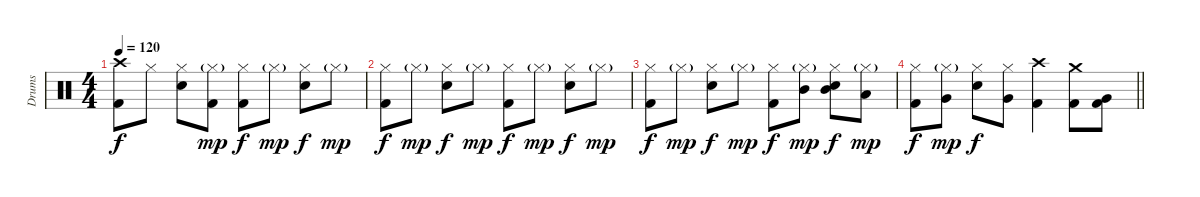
\track ("Drums" "Drums") {instrument percussion}
\staff {score}
\articulation defaults
\ts (4 4)
\tempo 120
\clef neutral
\ks c
("Crash high (hit)" "Kick (hit) 2").8{dy f} "Hi-Hat (closed)".8 ("Hi-Hat (closed)" "Electric Snare (hit)").8 ("Hi-Hat (closed)"{g} "Kick (hit) 2").8{dy mp} ("Hi-Hat (closed)" "Kick (hit) 2").8{dy f} "Hi-Hat (closed)"{g}.8{dy mp} ("Hi-Hat (closed)" "Electric Snare (hit)").8{dy f} "Hi-Hat (closed)"{g}.8{dy mp} |
("Hi-Hat (closed)" "Kick (hit) 2").8{dy f} "Hi-Hat (closed)"{g}.8{dy mp} ("Hi-Hat (closed)" "Electric Snare (hit)").8{dy f} "Hi-Hat (closed)"{g}.8{dy mp} ("Hi-Hat (closed)" "Kick (hit) 2").8{dy f} "Hi-Hat (closed)"{g}.8{dy mp} ("Hi-Hat (closed)" "Electric Snare (hit)").8{dy f} "Hi-Hat (closed)"{g}.8{dy mp} |
("Hi-Hat (closed)" "Kick (hit) 2").8{dy f} "Hi-Hat (closed)"{g}.8{dy mp} ("Hi-Hat (closed)" "Electric Snare (hit)").8{dy f} "Hi-Hat (closed)"{g}.8{dy mp} ("Hi-Hat (closed)" "Kick (hit) 2").8{dy f} ("Mid Tom (hit)" "Hi-Hat (closed)"{g}).8{dy mp} ("Mid Tom (hit)" "Hi-Hat (closed)" "Electric Snare (hit)").8{dy f} ("Low Tom (hit)" "Hi-Hat (closed)"{g}).8{dy mp} |
\barLineRight lightlight
("Hi-Hat (closed)" "Kick (hit) 2").8{dy f} ("Very Low Tom (hit)" "Hi-Hat (closed)"{g}).8{dy mp} ("Hi-Hat (closed)" "Electric Snare (hit)").8{dy f} ("Very Low Tom (hit)" "Hi-Hat (closed)").8 ("Crash high (hit)" "Kick (hit) 2").4 ("Crash medium (hit)" "Kick (hit) 2").8 ("Very Low Tom (hit)" "Kick (hit) 2").8
